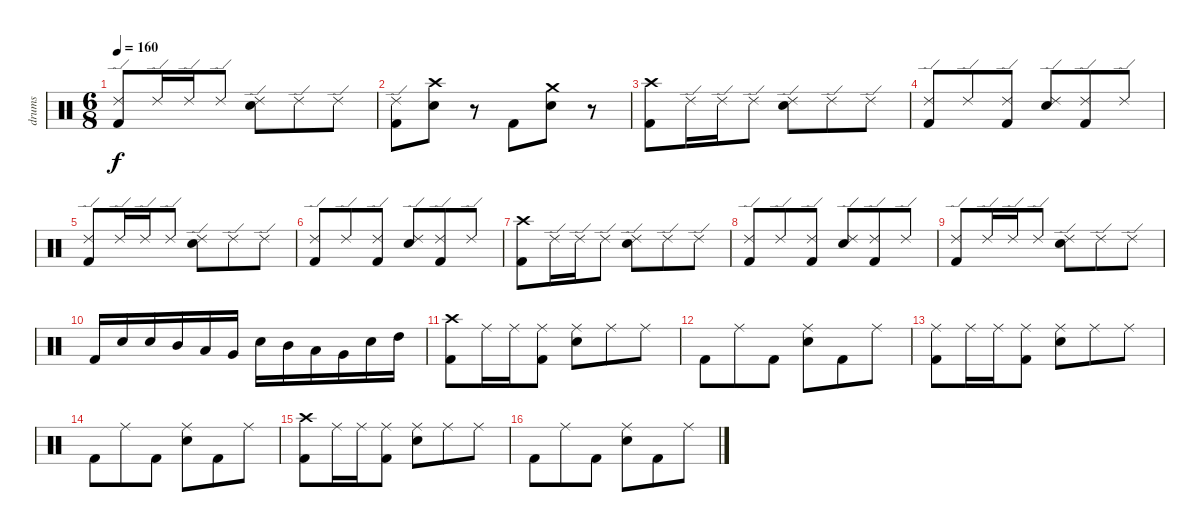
\track ("drums" "drums") {instrument percussion}
\staff {score}
\articulation defaults
\ts (6 8)
\tempo 160
\clef neutral
\ks c
("Ride (edge) 2" "Kick (hit) 2").8{dy f} "Ride (edge) 2".16 "Ride (edge) 2".16 "Ride (edge) 2".8 ("Electric Snare (hit)" "Ride (edge) 2").8 "Ride (edge) 2".8 "Ride (edge) 2".8 |
("Kick (hit) 2" "Ride (edge) 2").8 ("Crash high (hit)" "Electric Snare (hit)").8 r.8 "Kick (hit) 2".8 ("Crash medium (hit)" "Electric Snare (hit)").8 r.8 |
("Kick (hit) 2" "Crash high (hit)").8 "Ride (edge) 2".16 "Ride (edge) 2".16 "Ride (edge) 2".8 ("Electric Snare (hit)" "Ride (edge) 2").8 "Ride (edge) 2".8 "Ride (edge) 2".8 |
("Kick (hit) 2" "Ride (edge) 2").8 "Ride (edge) 2".8 ("Kick (hit) 2" "Ride (edge) 2").8 ("Electric Snare (hit)" "Ride (edge) 2").8 ("Kick (hit) 2" "Ride (edge) 2").8 "Ride (edge) 2".8 |
("Ride (edge) 2" "Kick (hit) 2").8 "Ride (edge) 2".16 "Ride (edge) 2".16 "Ride (edge) 2".8 ("Electric Snare (hit)" "Ride (edge) 2").8 "Ride (edge) 2".8 "Ride (edge) 2".8 |
("Kick (hit) 2" "Ride (edge) 2").8 "Ride (edge) 2".8 ("Kick (hit) 2" "Ride (edge) 2").8 ("Electric Snare (hit)" "Ride (edge) 2").8 ("Kick (hit) 2" "Ride (edge) 2").8 "Ride (edge) 2".8 |
("Kick (hit) 2" "Crash high (hit)").8 "Ride (edge) 2".16 "Ride (edge) 2".16 "Ride (edge) 2".8 ("Electric Snare (hit)" "Ride (edge) 2").8 "Ride (edge) 2".8 "Ride (edge) 2".8 |
("Kick (hit) 2" "Ride (edge) 2").8 "Ride (edge) 2".8 ("Kick (hit) 2" "Ride (edge) 2").8 ("Electric Snare (hit)" "Ride (edge) 2").8 ("Kick (hit) 2" "Ride (edge) 2").8 "Ride (edge) 2".8 |
("Ride (edge) 2" "Kick (hit) 2").8 "Ride (edge) 2".16 "Ride (edge) 2".16 "Ride (edge) 2".8 ("Electric Snare (hit)" "Ride (edge) 2").8 "Ride (edge) 2".8 "Ride (edge) 2".8 |
"Kick (hit) 2".16 "Electric Snare (hit)".16 "Electric Snare (hit)".16 "Mid Tom (hit)".16 "Low Tom (hit)".16 "Very Low Tom (hit)".16 "Electric Snare (hit)".16 "Mid Tom (hit)".16 "Low Tom (hit)".16 "Very Low Tom (hit)".16 "Electric Snare (hit)".16 "High Tom (hit)".16 |
("Kick (hit) 2" "Crash high (hit)").8 "Ride (middle)".16 "Ride (middle)".16 ("Kick (hit) 2" "Ride (middle)").8 ("Electric Snare (hit)" "Ride (middle)").8 "Ride (middle)".8 "Ride (middle)".8 |
"Kick (hit) 2".8 "Ride (middle)".8 "Kick (hit) 2".8 ("Electric Snare (hit)" "Ride (middle)").8 "Kick (hit) 2".8 "Ride (middle)".8 |
("Ride (middle)" "Kick (hit) 2").8 "Ride (middle)".16 "Ride (middle)".16 ("Kick (hit) 2" "Ride (middle)").8 ("Electric Snare (hit)" "Ride (middle)").8 "Ride (middle)".8 "Ride (middle)".8 |
"Kick (hit) 2".8 "Ride (middle)".8 "Kick (hit) 2".8 ("Electric Snare (hit)" "Ride (middle)").8 "Kick (hit) 2".8 "Ride (middle)".8 |
("Kick (hit) 2" "Crash high (hit)").8 "Ride (middle)".16 "Ride (middle)".16 ("Kick (hit) 2" "Ride (middle)").8 ("Electric Snare (hit)" "Ride (middle)").8 "Ride (middle)".8 "Ride (middle)".8 |
"Kick (hit) 2".8 "Ride (middle)".8 "Kick (hit) 2".8 ("Electric Snare (hit)" "Ride (middle)").8 "Kick (hit) 2".8 "Ride (middle)".8
